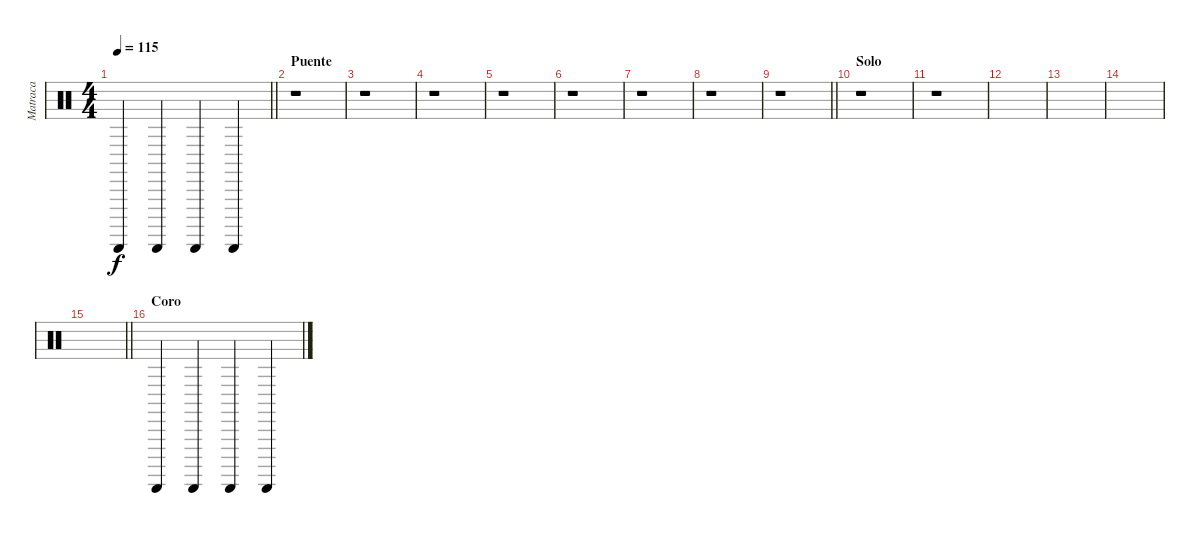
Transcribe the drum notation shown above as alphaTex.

\track ("Matraca" "Matraca") {instrument percussion}
\staff {score}
\articulation defaults
\ts (4 4)
\tempo 115
\clef neutral
\barLineRight lightlight
\ks c "Guiro (scrap-return)".4{dy f} "Guiro (scrap-return)".4 "Guiro (scrap-return)".4 "Guiro (scrap-return)".4
|
\section ("" "Puente")
r.1 |
r.1 |
r.1 |
r.1 |
r.1 |
r.1 |
r.1 |
\barLineRight lightlight
r.1 |
\section ("" "Solo")
r.1 |
r.1 |
|
|
|
\barLineRight lightlight
|
\section ("" "Coro")
"Guiro (scrap-return)".4 "Guiro (scrap-return)".4 "Guiro (scrap-return)".4 "Guiro (scrap-return)".4
